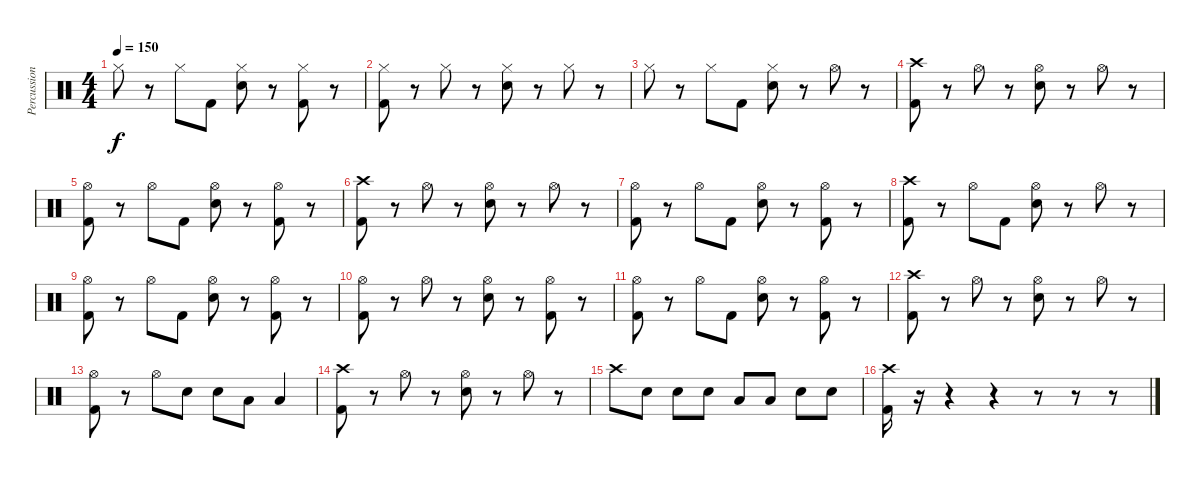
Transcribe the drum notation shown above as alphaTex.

\track ("Percussion" "Percussion") {instrument percussion}
\staff {score}
\articulation defaults
\ts (4 4)
\tempo 150
\clef neutral
\ks c "Hi-Hat (closed)".8{dy f}
r.8 "Hi-Hat (closed)".8 "Kick (hit) 2".8 ("Hi-Hat (closed)" "Electric Snare (hit)").8 r.8 ("Hi-Hat (closed)" "Kick (hit) 2").8 r.8 |
("Hi-Hat (closed)" "Kick (hit) 2").8 r.8 "Hi-Hat (closed)".8 r.8 ("Hi-Hat (closed)" "Electric Snare (hit)").8 r.8 "Hi-Hat (closed)".8 r.8 |
"Hi-Hat (closed)".8 r.8 "Hi-Hat (closed)".8 "Kick (hit) 2".8 ("Hi-Hat (closed)" "Electric Snare (hit)").8 r.8 "Hi-Hat (open)".8 r.8 |
("Crash high (hit)" "Kick (hit) 2").8 r.8 "Hi-Hat (open)".8 r.8 ("Hi-Hat (open)" "Electric Snare (hit)").8 r.8 "Hi-Hat (open)".8 r.8 |
("Hi-Hat (open)" "Kick (hit) 2").8 r.8 "Hi-Hat (open)".8 "Kick (hit) 2".8 ("Hi-Hat (open)" "Electric Snare (hit)").8 r.8 ("Hi-Hat (open)" "Kick (hit) 2").8 r.8 |
("Crash high (hit)" "Kick (hit) 2").8 r.8 "Hi-Hat (open)".8 r.8 ("Hi-Hat (open)" "Electric Snare (hit)").8 r.8 "Hi-Hat (open)".8 r.8 |
("Hi-Hat (open)" "Kick (hit) 2").8 r.8 "Hi-Hat (open)".8 "Kick (hit) 2".8 ("Hi-Hat (open)" "Electric Snare (hit)").8 r.8 ("Hi-Hat (open)" "Kick (hit) 2").8 r.8 |
("Crash high (hit)" "Kick (hit) 2").8 r.8 "Hi-Hat (open)".8 "Kick (hit) 2".8 ("Hi-Hat (open)" "Electric Snare (hit)").8 r.8 "Hi-Hat (open)".8 r.8 |
("Hi-Hat (open)" "Kick (hit) 2").8 r.8 "Hi-Hat (open)".8 "Kick (hit) 2".8 ("Hi-Hat (open)" "Electric Snare (hit)").8 r.8 ("Hi-Hat (open)" "Kick (hit) 2").8 r.8 |
("Hi-Hat (open)" "Kick (hit) 2").8 r.8 "Hi-Hat (open)".8 r.8 ("Hi-Hat (open)" "Electric Snare (hit)").8 r.8 ("Hi-Hat (open)" "Kick (hit) 2").8 r.8 |
("Hi-Hat (open)" "Kick (hit) 2").8 r.8 "Hi-Hat (open)".8 "Kick (hit) 2".8 ("Hi-Hat (open)" "Electric Snare (hit)").8 r.8 ("Hi-Hat (open)" "Kick (hit) 2").8 r.8 |
("Crash high (hit)" "Kick (hit) 2").8 r.8 "Hi-Hat (open)".8 r.8 ("Hi-Hat (open)" "Electric Snare (hit)").8 r.8 "Hi-Hat (open)".8 r.8 |
("Hi-Hat (open)" "Kick (hit) 2").8 r.8 "Hi-Hat (open)".8 "Electric Snare (hit)".8 "Electric Snare (hit)".8 "Low Tom (hit)".8 "Low Tom (hit)".4 |
("Crash high (hit)" "Kick (hit) 2").8 r.8 "Hi-Hat (open)".8 r.8 ("Hi-Hat (open)" "Electric Snare (hit)").8 r.8 "Hi-Hat (open)".8 r.8 |
"Crash high (hit)".8 "Electric Snare (hit)".8 "Electric Snare (hit)".8 "Electric Snare (hit)".8 "Low Tom (hit)".8 "Low Tom (hit)".8 "Electric Snare (hit)".8 "Electric Snare (hit)".8 |
("Crash high (hit)" "Kick (hit) 2").16 r.16 r.4 r.4 r.8 r.8 r.8
